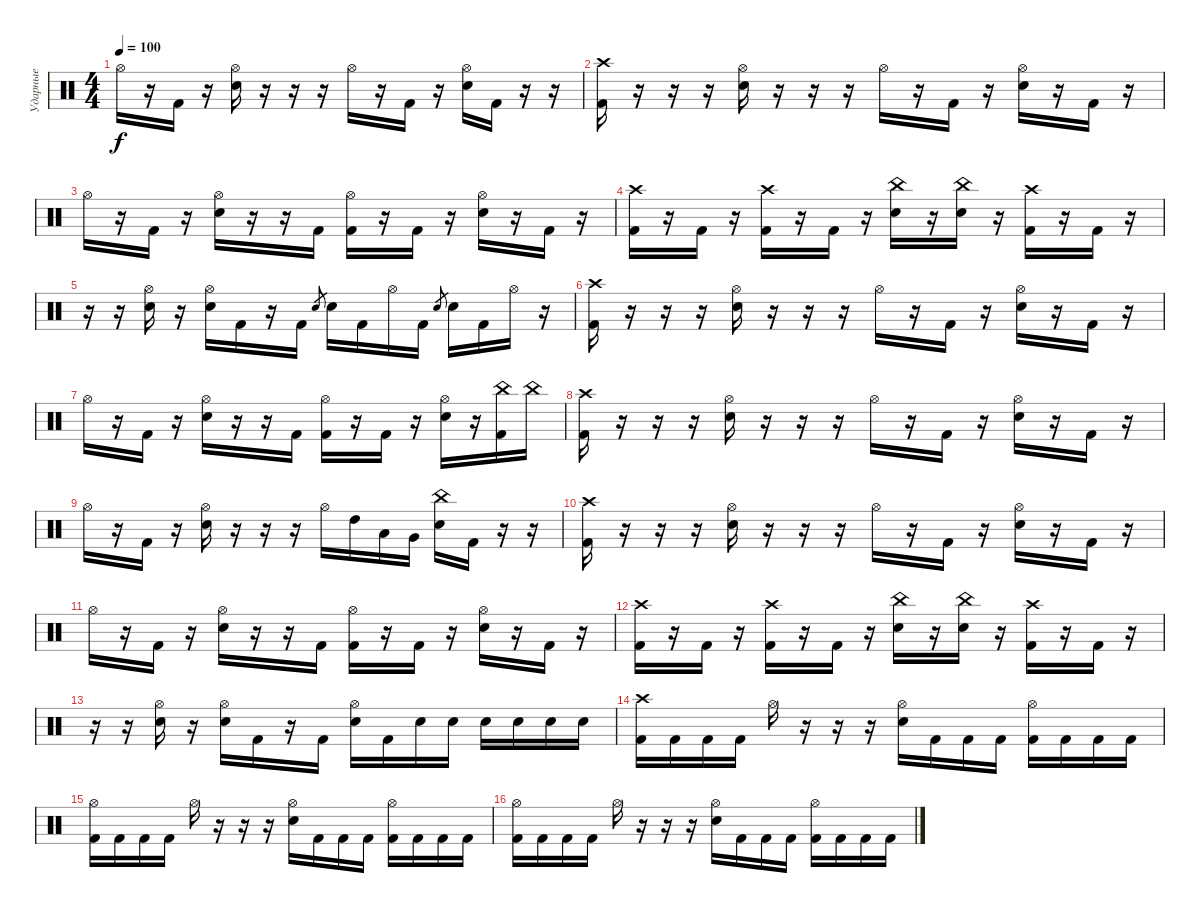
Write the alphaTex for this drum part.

\track ("Ударные" "Ударные") {instrument percussion}
\staff {score}
\articulation defaults
\ts (4 4)
\tempo 100
\clef neutral
\ks c "Hi-Hat (open)".16{dy f}
r.16 "Kick (hit) 2".16 r.16 ("Hi-Hat (open)" "Electric Snare (hit)").16 r.16 r.16 r.16 "Hi-Hat (open)".16 r.16 "Kick (hit) 2".16 r.16 ("Hi-Hat (open)" "Electric Snare (hit)").16 "Kick (hit) 2".16 r.16 r.16 |
("Crash high (hit)" "Kick (hit) 2").16 r.16 r.16 r.16 ("Hi-Hat (open)" "Electric Snare (hit)").16 r.16 r.16 r.16 "Hi-Hat (open)".16 r.16 "Kick (hit) 2".16 r.16 ("Hi-Hat (open)" "Electric Snare (hit)").16 r.16 "Kick (hit) 2".16 r.16 |
"Hi-Hat (open)".16 r.16 "Kick (hit) 2".16 r.16 ("Hi-Hat (open)" "Electric Snare (hit)").16 r.16 r.16 "Kick (hit) 2".16 ("Hi-Hat (open)" "Kick (hit) 2").16 r.16 "Kick (hit) 2".16 r.16 ("Hi-Hat (open)" "Electric Snare (hit)").16 r.16 "Kick (hit) 2".16 r.16 |
("Crash high (hit)" "Kick (hit) 2").16 r.16 "Kick (hit) 2".16 r.16 ("Crash high (hit)" "Kick (hit) 2").16 r.16 "Kick (hit) 2".16 r.16 ("China (hit)" "Electric Snare (hit)").16 r.16 ("China (hit)" "Electric Snare (hit)").16 r.16 ("Crash high (hit)" "Kick (hit) 2").16 r.16 "Kick (hit) 2".16 r.16 |
r.16 r.16 ("Hi-Hat (open)" "Electric Snare (hit)").16 r.16 ("Hi-Hat (open)" "Electric Snare (hit)").16 "Kick (hit) 2".16 r.16 "Kick (hit) 2".16 "Electric Snare (hit)".8{gr} "Electric Snare (hit)".16 "Kick (hit) 2".16 "Hi-Hat (open)".16 "Kick (hit) 2".16 "Electric Snare (hit)".8{gr} "Electric Snare (hit)".16 "Kick (hit) 2".16 "Hi-Hat (open)".16 r.16 |
("Crash high (hit)" "Kick (hit) 2").16 r.16 r.16 r.16 ("Hi-Hat (open)" "Electric Snare (hit)").16 r.16 r.16 r.16 "Hi-Hat (open)".16 r.16 "Kick (hit) 2".16 r.16 ("Hi-Hat (open)" "Electric Snare (hit)").16 r.16 "Kick (hit) 2".16 r.16 |
"Hi-Hat (open)".16 r.16 "Kick (hit) 2".16 r.16 ("Hi-Hat (open)" "Electric Snare (hit)").16 r.16 r.16 "Kick (hit) 2".16 ("Hi-Hat (open)" "Kick (hit) 2").16 r.16 "Kick (hit) 2".16 r.16 ("Hi-Hat (open)" "Electric Snare (hit)").16 r.16 ("China (hit)" "Kick (hit) 2").16 "China (hit)".16 |
("Crash high (hit)" "Kick (hit) 2").16 r.16 r.16 r.16 ("Hi-Hat (open)" "Electric Snare (hit)").16 r.16 r.16 r.16 "Hi-Hat (open)".16 r.16 "Kick (hit) 2".16 r.16 ("Hi-Hat (open)" "Electric Snare (hit)").16 r.16 "Kick (hit) 2".16 r.16 |
"Hi-Hat (open)".16 r.16 "Kick (hit) 2".16 r.16 ("Hi-Hat (open)" "Electric Snare (hit)").16 r.16 r.16 r.16 "Hi-Hat (open)".16 "High Tom (hit)".16 "Low Tom (hit)".16 "Very Low Tom (hit)".16 ("China (hit)" "Electric Snare (hit)").16 "Kick (hit) 2".16 r.16 r.16 |
("Crash high (hit)" "Kick (hit) 2").16 r.16 r.16 r.16 ("Hi-Hat (open)" "Electric Snare (hit)").16 r.16 r.16 r.16 "Hi-Hat (open)".16 r.16 "Kick (hit) 2".16 r.16 ("Hi-Hat (open)" "Electric Snare (hit)").16 r.16 "Kick (hit) 2".16 r.16 |
"Hi-Hat (open)".16 r.16 "Kick (hit) 2".16 r.16 ("Hi-Hat (open)" "Electric Snare (hit)").16 r.16 r.16 "Kick (hit) 2".16 ("Hi-Hat (open)" "Kick (hit) 2").16 r.16 "Kick (hit) 2".16 r.16 ("Hi-Hat (open)" "Electric Snare (hit)").16 r.16 "Kick (hit) 2".16 r.16 |
("Crash high (hit)" "Kick (hit) 2").16 r.16 "Kick (hit) 2".16 r.16 ("Crash high (hit)" "Kick (hit) 2").16 r.16 "Kick (hit) 2".16 r.16 ("China (hit)" "Electric Snare (hit)").16 r.16 ("China (hit)" "Electric Snare (hit)").16 r.16 ("Crash high (hit)" "Kick (hit) 2").16 r.16 "Kick (hit) 2".16 r.16 |
r.16 r.16 ("Hi-Hat (open)" "Electric Snare (hit)").16 r.16 ("Hi-Hat (open)" "Electric Snare (hit)").16 "Kick (hit) 2".16 r.16 "Kick (hit) 2".16 ("Hi-Hat (open)" "Electric Snare (hit)").16 "Kick (hit) 2".16 "Electric Snare (hit)".16 "Electric Snare (hit)".16 "Electric Snare (hit)".16 "Electric Snare (hit)".16 "Electric Snare (hit)".16 "Electric Snare (hit)".16 |
("Crash high (hit)" "Kick (hit) 2").16 "Kick (hit) 2".16 "Kick (hit) 2".16 "Kick (hit) 2".16 "Hi-Hat (open)".16 r.16 r.16 r.16 ("Hi-Hat (open)" "Electric Snare (hit)").16 "Kick (hit) 2".16 "Kick (hit) 2".16 "Kick (hit) 2".16 ("Hi-Hat (open)" "Kick (hit) 2").16 "Kick (hit) 2".16 "Kick (hit) 2".16 "Kick (hit) 2".16 |
("Hi-Hat (open)" "Kick (hit) 2").16 "Kick (hit) 2".16 "Kick (hit) 2".16 "Kick (hit) 2".16 "Hi-Hat (open)".16 r.16 r.16 r.16 ("Hi-Hat (open)" "Electric Snare (hit)").16 "Kick (hit) 2".16 "Kick (hit) 2".16 "Kick (hit) 2".16 ("Hi-Hat (open)" "Kick (hit) 2").16 "Kick (hit) 2".16 "Kick (hit) 2".16 "Kick (hit) 2".16 |
("Hi-Hat (open)" "Kick (hit) 2").16 "Kick (hit) 2".16 "Kick (hit) 2".16 "Kick (hit) 2".16 "Hi-Hat (open)".16 r.16 r.16 r.16 ("Hi-Hat (open)" "Electric Snare (hit)").16 "Kick (hit) 2".16 "Kick (hit) 2".16 "Kick (hit) 2".16 ("Hi-Hat (open)" "Kick (hit) 2").16 "Kick (hit) 2".16 "Kick (hit) 2".16 "Kick (hit) 2".16
